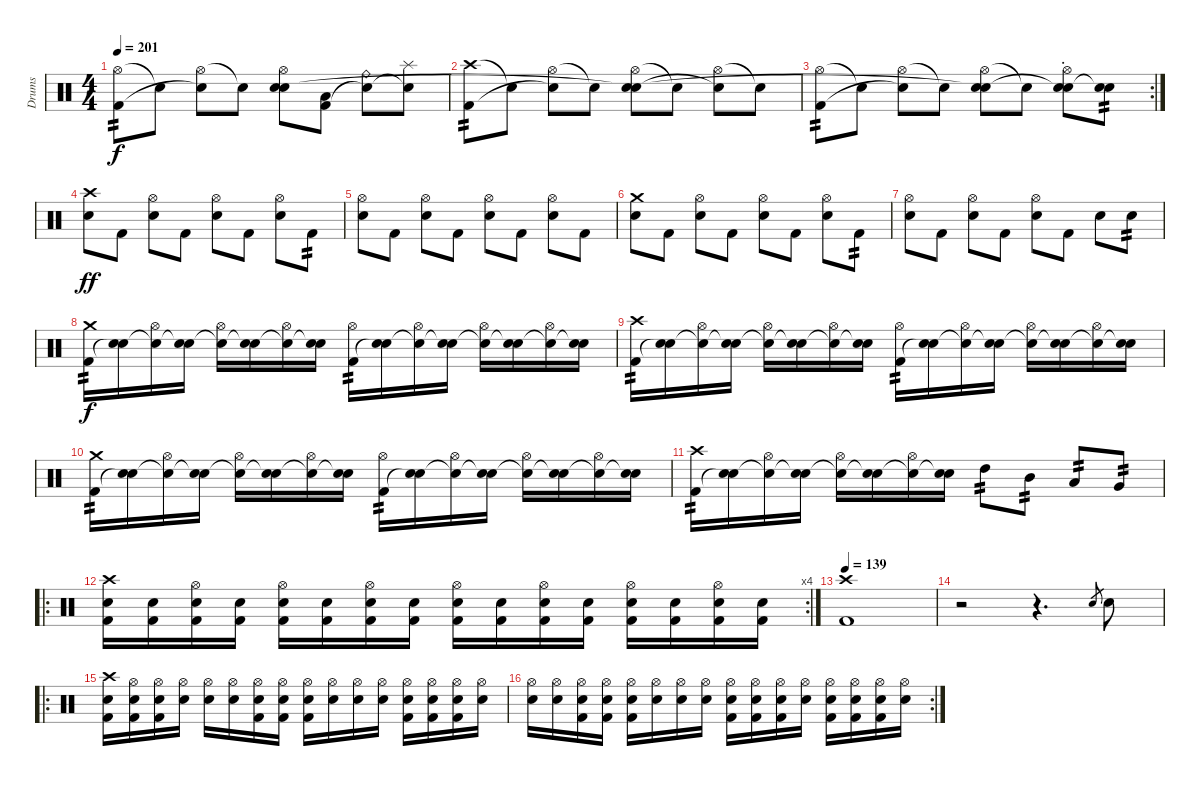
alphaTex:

\track ("Drums" "Drums") {instrument percussion}
\staff {score}
\articulation defaults
\ts (4 4)
\tempo 201
\clef neutral
\ks c
("Hi-Hat (open)" "Kick (hit) 2").8{tp 2 dy f} "Snare (hit)"{t}.8 ("Hi-Hat (open)" "Snare (hit)"{t}).8 "Snare (hit)"{t}.8 ("Hi-Hat (open)" "Electric Snare (hit)" "Snare (hit)"{t}).8 ("Low Floor Tom (hit)" "Kick (hit) 2").8 ("Ride (bell)" "Snare (hit)"{t}).8 ("Splash (hit)" "Snare (hit)"{t}).8 |
("Crash high (hit)" "Kick (hit) 2").8{tp 2} "Snare (hit)"{t}.8 ("Hi-Hat (open)" "Snare (hit)"{t}).8 "Snare (hit)"{t}.8 ("Hi-Hat (open)" "Electric Snare (hit)" "Snare (hit)"{t}).8 "Snare (hit)"{t}.8 ("Hi-Hat (open)" "Snare (hit)"{t}).8 "Snare (hit)"{t}.8 |
\rc 2
("Hi-Hat (open)" "Kick (hit) 2").8{tp 2} "Snare (hit)"{t}.8 ("Hi-Hat (open)" "Snare (hit)"{t}).8 "Snare (hit)"{t}.8 ("Hi-Hat (open)" "Electric Snare (hit)" "Snare (hit)"{t}).8 "Snare (hit)"{t}.8 ("Hi-Hat (open)" "Electric Snare (hit)"{st} "Snare (hit)"{t}).8 ("Electric Snare (hit)" "Snare (hit)"{t}).8{tp 2} |
("Crash high (hit)" "Electric Snare (hit)").8{dy ff} "Kick (hit) 2".8 ("Hi-Hat (open)" "Electric Snare (hit)").8 "Kick (hit) 2".8 ("Hi-Hat (open)" "Electric Snare (hit)").8 "Kick (hit) 2".8 ("Hi-Hat (open)" "Electric Snare (hit)").8 "Kick (hit) 2".8{tp 2} |
("Hi-Hat (open)" "Electric Snare (hit)").8 "Kick (hit) 2".8 ("Hi-Hat (open)" "Electric Snare (hit)").8 "Kick (hit) 2".8 ("Hi-Hat (open)" "Electric Snare (hit)").8 "Kick (hit) 2".8 ("Hi-Hat (open)" "Electric Snare (hit)").8 "Kick (hit) 2".8 |
("Crash medium (hit)" "Electric Snare (hit)").8 "Kick (hit) 2".8 ("Hi-Hat (open)" "Electric Snare (hit)").8 "Kick (hit) 2".8 ("Hi-Hat (open)" "Electric Snare (hit)").8 "Kick (hit) 2".8 ("Hi-Hat (open)" "Electric Snare (hit)").8 "Kick (hit) 2".8{tp 2} |
("Hi-Hat (open)" "Electric Snare (hit)").8 "Kick (hit) 2".8 ("Hi-Hat (open)" "Electric Snare (hit)").8 "Kick (hit) 2".8 ("Hi-Hat (open)" "Electric Snare (hit)").8 "Kick (hit) 2".8 "Electric Snare (hit)".8 "Electric Snare (hit)".8{tp 2} |
("Crash medium (hit)" "Kick (hit) 2").16{tp 2 dy f} ("Electric Snare (hit)" "Snare (hit)"{t}).16 ("Hi-Hat (open)" "Snare (hit)"{t}).16 ("Electric Snare (hit)" "Snare (hit)"{t}).16 ("Hi-Hat (open)" "Snare (hit)"{t}).16 ("Electric Snare (hit)" "Snare (hit)"{t}).16 ("Hi-Hat (open)" "Snare (hit)"{t}).16 ("Electric Snare (hit)" "Snare (hit)"{t}).16 ("Hi-Hat (open)" "Kick (hit) 2").16{tp 2} ("Electric Snare (hit)" "Snare (hit)"{t}).16 ("Hi-Hat (open)" "Snare (hit)"{t}).16 ("Electric Snare (hit)" "Snare (hit)"{t}).16 ("Hi-Hat (open)" "Snare (hit)"{t}).16 ("Electric Snare (hit)" "Snare (hit)"{t}).16 ("Hi-Hat (open)" "Snare (hit)"{t}).16 ("Electric Snare (hit)" "Snare (hit)"{t}).16 |
("Crash high (hit)" "Kick (hit) 2").16{tp 2} ("Electric Snare (hit)" "Snare (hit)"{t}).16 ("Hi-Hat (open)" "Snare (hit)"{t}).16 ("Electric Snare (hit)" "Snare (hit)"{t}).16 ("Hi-Hat (open)" "Snare (hit)"{t}).16 ("Electric Snare (hit)" "Snare (hit)"{t}).16 ("Hi-Hat (open)" "Snare (hit)"{t}).16 ("Electric Snare (hit)" "Snare (hit)"{t}).16 ("Hi-Hat (open)" "Kick (hit) 2").16{tp 2} ("Electric Snare (hit)" "Snare (hit)"{t}).16 ("Hi-Hat (open)" "Snare (hit)"{t}).16 ("Electric Snare (hit)" "Snare (hit)"{t}).16 ("Hi-Hat (open)" "Snare (hit)"{t}).16 ("Electric Snare (hit)" "Snare (hit)"{t}).16 ("Hi-Hat (open)" "Snare (hit)"{t}).16 ("Electric Snare (hit)" "Snare (hit)"{t}).16 |
("Crash medium (hit)" "Kick (hit) 2").16{tp 2} ("Electric Snare (hit)" "Snare (hit)"{t}).16 ("Hi-Hat (open)" "Snare (hit)"{t}).16 ("Electric Snare (hit)" "Snare (hit)"{t}).16 ("Hi-Hat (open)" "Snare (hit)"{t}).16 ("Electric Snare (hit)" "Snare (hit)"{t}).16 ("Hi-Hat (open)" "Snare (hit)"{t}).16 ("Electric Snare (hit)" "Snare (hit)"{t}).16 ("Hi-Hat (open)" "Kick (hit) 2").16{tp 2} ("Electric Snare (hit)" "Snare (hit)"{t}).16 ("Hi-Hat (open)" "Snare (hit)"{t}).16 ("Electric Snare (hit)" "Snare (hit)"{t}).16 ("Hi-Hat (open)" "Snare (hit)"{t}).16 ("Electric Snare (hit)" "Snare (hit)"{t}).16 ("Hi-Hat (open)" "Snare (hit)"{t}).16 ("Electric Snare (hit)" "Snare (hit)"{t}).16 |
("Crash high (hit)" "Kick (hit) 2").16{tp 2} ("Electric Snare (hit)" "Snare (hit)"{t}).16 ("Hi-Hat (open)" "Snare (hit)"{t}).16 ("Electric Snare (hit)" "Snare (hit)"{t}).16 ("Hi-Hat (open)" "Snare (hit)"{t}).16 ("Electric Snare (hit)" "Snare (hit)"{t}).16 ("Hi-Hat (open)" "Snare (hit)"{t}).16 ("Electric Snare (hit)" "Snare (hit)"{t}).16 "High Tom (hit)".8{tp 2} "Mid Tom (hit)".8{tp 2} "Low Tom (hit)".8{tp 2} "Very Low Tom (hit)".8{tp 2} |
\ro
\rc 4
("Crash high (hit)" "Electric Snare (hit)" "Kick (hit) 2").16 ("Electric Snare (hit)" "Kick (hit) 2").16 ("Hi-Hat (open)" "Electric Snare (hit)" "Kick (hit) 2").16 ("Electric Snare (hit)" "Kick (hit) 2").16 ("Hi-Hat (open)" "Electric Snare (hit)" "Kick (hit) 2").16 ("Electric Snare (hit)" "Kick (hit) 2").16 ("Hi-Hat (open)" "Electric Snare (hit)" "Kick (hit) 2").16 ("Electric Snare (hit)" "Kick (hit) 2").16 ("Hi-Hat (open)" "Electric Snare (hit)" "Kick (hit) 2").16 ("Electric Snare (hit)" "Kick (hit) 2").16 ("Hi-Hat (open)" "Electric Snare (hit)" "Kick (hit) 2").16 ("Electric Snare (hit)" "Kick (hit) 2").16 ("Hi-Hat (open)" "Electric Snare (hit)" "Kick (hit) 2").16 ("Electric Snare (hit)" "Kick (hit) 2").16 ("Hi-Hat (open)" "Electric Snare (hit)" "Kick (hit) 2").16 ("Electric Snare (hit)" "Kick (hit) 2").16 |
\tempo 144
\tempo 139
("Crash high (hit)" "Kick (hit) 2").1 |
r.2 r.4{d} "Electric Snare (hit)".8{gr} "Electric Snare (hit)".8 |
\ro
("Crash high (hit)" "Electric Snare (hit)" "Kick (hit) 2").16 ("Hi-Hat (open)" "Electric Snare (hit)" "Kick (hit) 2").16 ("Hi-Hat (open)" "Electric Snare (hit)" "Kick (hit) 2").16 ("Hi-Hat (open)" "Electric Snare (hit)").16 ("Hi-Hat (open)" "Electric Snare (hit)").16 ("Hi-Hat (open)" "Electric Snare (hit)").16 ("Hi-Hat (open)" "Electric Snare (hit)" "Kick (hit) 2").16 ("Hi-Hat (open)" "Electric Snare (hit)" "Kick (hit) 2").16 ("Hi-Hat (open)" "Electric Snare (hit)" "Kick (hit) 2").16 ("Hi-Hat (open)" "Electric Snare (hit)").16 ("Hi-Hat (open)" "Electric Snare (hit)").16 ("Hi-Hat (open)" "Electric Snare (hit)").16 ("Hi-Hat (open)" "Electric Snare (hit)" "Kick (hit) 2").16 ("Hi-Hat (open)" "Electric Snare (hit)" "Kick (hit) 2").16 ("Hi-Hat (open)" "Electric Snare (hit)" "Kick (hit) 2").16 ("Hi-Hat (open)" "Electric Snare (hit)").16 |
\rc 2
("Hi-Hat (open)" "Electric Snare (hit)").16 ("Hi-Hat (open)" "Electric Snare (hit)").16 ("Hi-Hat (open)" "Electric Snare (hit)" "Kick (hit) 2").16 ("Hi-Hat (open)" "Electric Snare (hit)" "Kick (hit) 2").16 ("Hi-Hat (open)" "Electric Snare (hit)" "Kick (hit) 2").16 ("Hi-Hat (open)" "Electric Snare (hit)").16 ("Hi-Hat (open)" "Electric Snare (hit)").16 ("Hi-Hat (open)" "Electric Snare (hit)").16 ("Hi-Hat (open)" "Electric Snare (hit)" "Kick (hit) 2").16 ("Hi-Hat (open)" "Electric Snare (hit)" "Kick (hit) 2").16 ("Hi-Hat (open)" "Electric Snare (hit)" "Kick (hit) 2").16 ("Hi-Hat (open)" "Electric Snare (hit)").16 ("Hi-Hat (open)" "Electric Snare (hit)" "Kick (hit) 2").16 ("Hi-Hat (open)" "Electric Snare (hit)" "Kick (hit) 2").16 ("Hi-Hat (open)" "Electric Snare (hit)" "Kick (hit) 2").16 ("Hi-Hat (open)" "Electric Snare (hit)").16
